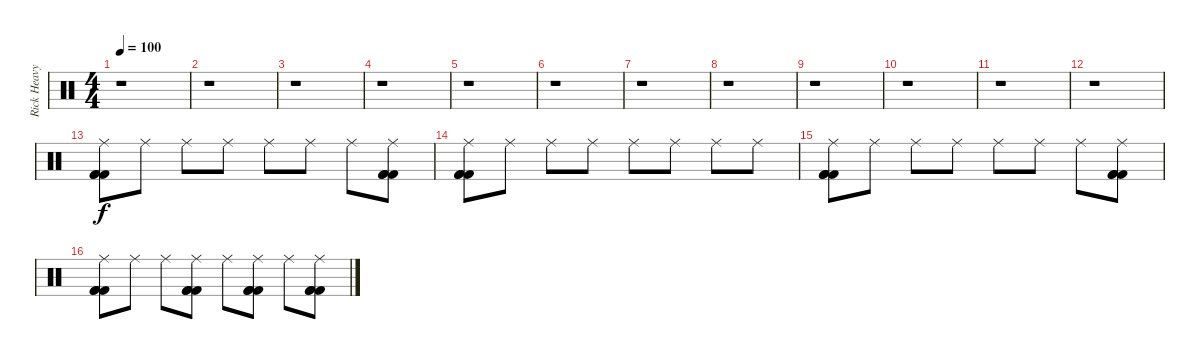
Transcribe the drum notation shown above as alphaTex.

\track ("Rick Heavy" "Rick Heavy") {instrument percussion}
\staff {score}
\articulation defaults
\ts (4 4)
\section ("" "")
\tempo 100
\clef neutral
\ks c
r.1{dy f} |
\section ("" "")
r.1 |
\section ("" "")
r.1 |
\section ("" "")
r.1 |
r.1 |
r.1 |
r.1 |
r.1 |
r.1 |
r.1 |
r.1 |
r.1 |
\section ("" "")
("Ride (middle)" "Kick (hit) 2" "Kick (hit) 2" "Kick (hit) 2").8 "Ride (middle)".8 "Ride (middle)".8 "Ride (middle)".8 "Ride (middle)".8 "Ride (middle)".8 "Ride (middle)".8 ("Ride (middle)" "Kick (hit) 2" "Kick (hit) 2" "Kick (hit) 2").8 |
("Ride (middle)" "Kick (hit) 2" "Kick (hit) 2" "Kick (hit) 2").8 "Ride (middle)".8 "Ride (middle)".8 "Ride (middle)".8 "Ride (middle)".8 "Ride (middle)".8 "Ride (middle)".8 "Ride (middle)".8 |
("Ride (middle)" "Kick (hit) 2" "Kick (hit) 2" "Kick (hit) 2").8 "Ride (middle)".8 "Ride (middle)".8 "Ride (middle)".8 "Ride (middle)".8 "Ride (middle)".8 "Ride (middle)".8 ("Ride (middle)" "Kick (hit) 2" "Kick (hit) 2" "Kick (hit) 2").8 |
("Ride (middle)" "Kick (hit) 2" "Kick (hit) 2" "Kick (hit) 2").8 "Ride (middle)".8 "Ride (middle)".8 ("Ride (middle)" "Kick (hit) 2" "Kick (hit) 2" "Kick (hit) 2").8 "Ride (middle)".8 ("Ride (middle)" "Kick (hit) 2" "Kick (hit) 2" "Kick (hit) 2").8 "Ride (middle)".8 ("Ride (middle)" "Kick (hit) 2" "Kick (hit) 2" "Kick (hit) 2").8
